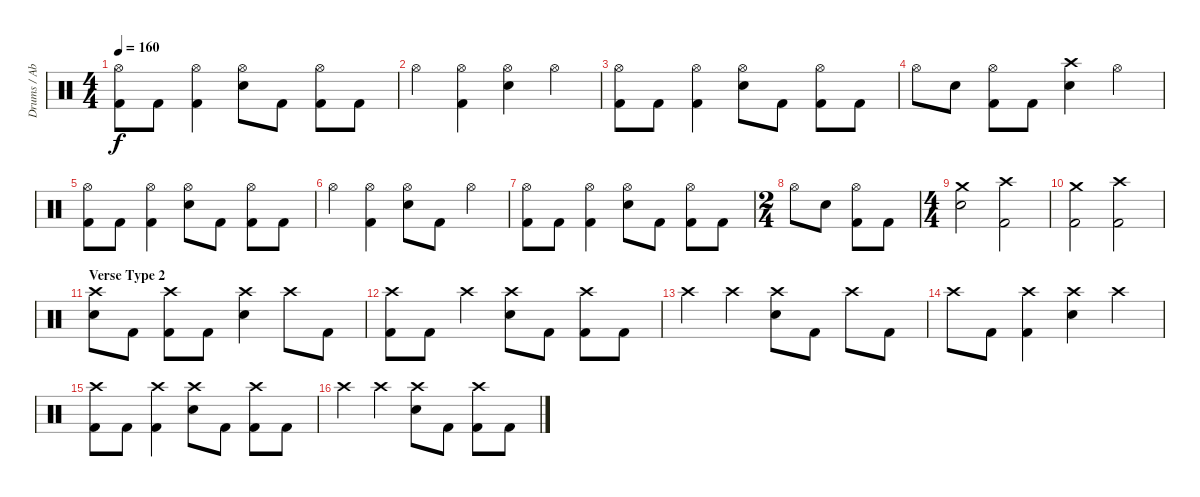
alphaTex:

\track ("Drums / Abe Cunningham" "Drums / Ab") {instrument percussion}
\staff {score}
\articulation defaults
\ts (4 4)
\tempo 160
\clef neutral
\ks c
("Hi-Hat (open)" "Kick (hit) 2").8{dy f} "Kick (hit) 2".8 ("Hi-Hat (open)" "Kick (hit) 2").4 ("Hi-Hat (open)" "Electric Snare (hit)").8 "Kick (hit) 2".8 ("Hi-Hat (open)" "Kick (hit) 2").8 "Kick (hit) 2".8 |
"Hi-Hat (open)".4 ("Hi-Hat (open)" "Kick (hit) 2").4 ("Hi-Hat (open)" "Electric Snare (hit)").4 "Hi-Hat (open)".4 |
("Hi-Hat (open)" "Kick (hit) 2").8 "Kick (hit) 2".8 ("Hi-Hat (open)" "Kick (hit) 2").4 ("Hi-Hat (open)" "Electric Snare (hit)").8 "Kick (hit) 2".8 ("Hi-Hat (open)" "Kick (hit) 2").8 "Kick (hit) 2".8 |
"Hi-Hat (open)".8 "Electric Snare (hit)".8 ("Hi-Hat (open)" "Kick (hit) 2").8 "Kick (hit) 2".8 ("Crash high (hit)" "Electric Snare (hit)").4 "Hi-Hat (open)".4 |
("Hi-Hat (open)" "Kick (hit) 2").8 "Kick (hit) 2".8 ("Hi-Hat (open)" "Kick (hit) 2").4 ("Hi-Hat (open)" "Electric Snare (hit)").8 "Kick (hit) 2".8 ("Hi-Hat (open)" "Kick (hit) 2").8 "Kick (hit) 2".8 |
"Hi-Hat (open)".4 ("Hi-Hat (open)" "Kick (hit) 2").4 ("Hi-Hat (open)" "Electric Snare (hit)").8 "Kick (hit) 2".8 "Hi-Hat (open)".4 |
("Hi-Hat (open)" "Kick (hit) 2").8 "Kick (hit) 2".8 ("Hi-Hat (open)" "Kick (hit) 2").4 ("Hi-Hat (open)" "Electric Snare (hit)").8 "Kick (hit) 2".8 ("Hi-Hat (open)" "Kick (hit) 2").8 "Kick (hit) 2".8 |
\ts (2 4)
"Hi-Hat (open)".8 "Electric Snare (hit)".8 ("Hi-Hat (open)" "Kick (hit) 2").8 "Kick (hit) 2".8 |
\ts (4 4)
("Crash medium (hit)" "Electric Snare (hit)").2 ("Crash high (hit)" "Kick (hit) 2").2 |
("Crash medium (hit)" "Kick (hit) 2").2 ("Crash high (hit)" "Kick (hit) 2").2 |
\section ("" "Verse Type 2")
("Crash high (hit)" "Electric Snare (hit)").8 "Kick (hit) 2".8 ("Crash high (hit)" "Kick (hit) 2").8 "Kick (hit) 2".8 ("Crash high (hit)" "Electric Snare (hit)").4 "Crash high (hit)".8 "Kick (hit) 2".8 |
("Crash high (hit)" "Kick (hit) 2").8 "Kick (hit) 2".8 "Crash high (hit)".4 ("Crash high (hit)" "Electric Snare (hit)").8 "Kick (hit) 2".8 ("Crash high (hit)" "Kick (hit) 2").8 "Kick (hit) 2".8 |
"Crash high (hit)".4 "Crash high (hit)".4 ("Crash high (hit)" "Electric Snare (hit)").8 "Kick (hit) 2".8 "Crash high (hit)".8 "Kick (hit) 2".8 |
"Crash high (hit)".8 "Kick (hit) 2".8 ("Crash high (hit)" "Kick (hit) 2").4 ("Crash high (hit)" "Electric Snare (hit)").4 "Crash high (hit)".4 |
("Crash high (hit)" "Kick (hit) 2").8 "Kick (hit) 2".8 ("Crash high (hit)" "Kick (hit) 2").4 ("Crash high (hit)" "Electric Snare (hit)").8 "Kick (hit) 2".8 ("Crash high (hit)" "Kick (hit) 2").8 "Kick (hit) 2".8 |
"Crash high (hit)".4 "Crash high (hit)".4 ("Crash high (hit)" "Electric Snare (hit)").8 "Kick (hit) 2".8 ("Crash high (hit)" "Kick (hit) 2").8 "Kick (hit) 2".8
